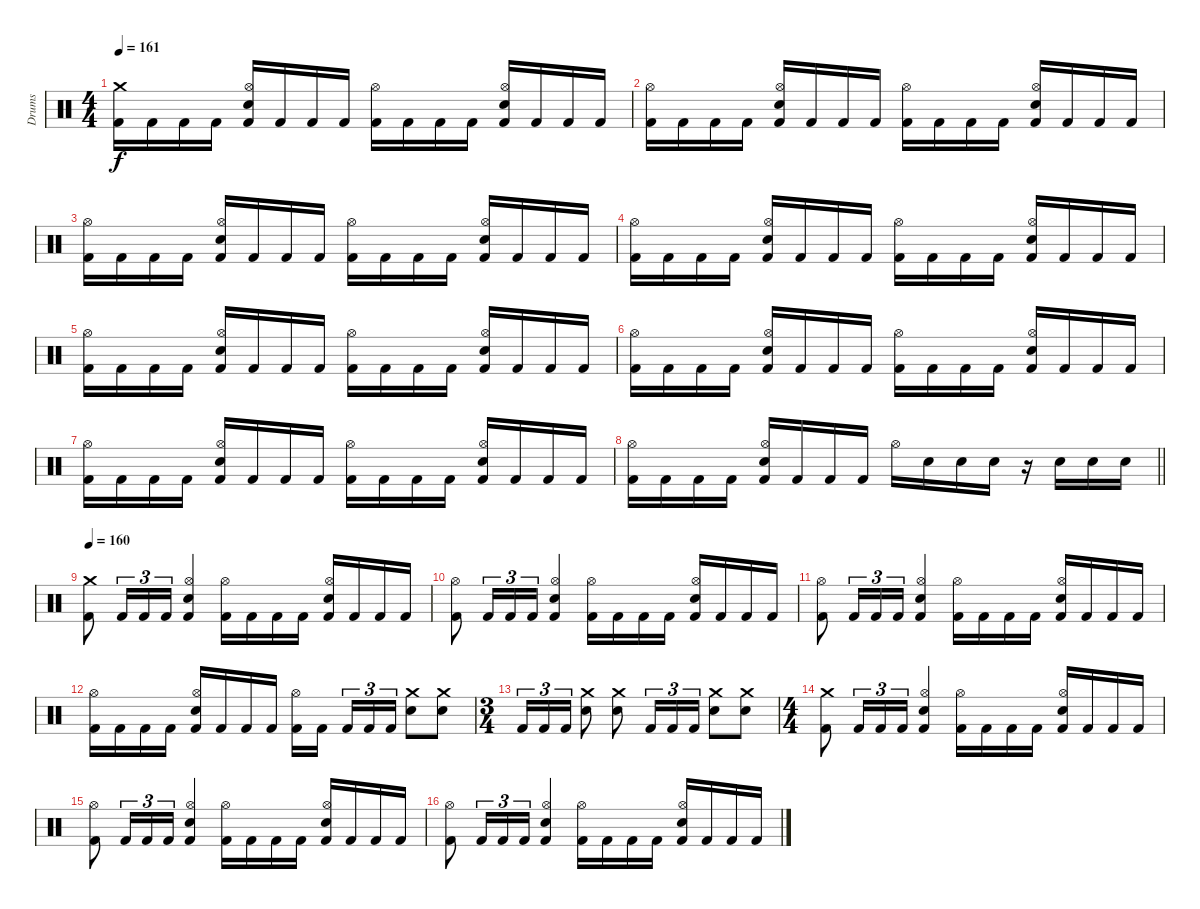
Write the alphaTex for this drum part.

\track ("Drums" "Drums") {instrument percussion}
\staff {score}
\articulation defaults
\ts (4 4)
\section ("" "")
\tempo 161
\clef neutral
\ks c
("Crash medium (hit)" "Kick (hit) 2").16{dy f} "Kick (hit) 2".16 "Kick (hit) 2".16 "Kick (hit) 2".16 ("Hi-Hat (open)" "Electric Snare (hit)" "Kick (hit) 2").16 "Kick (hit) 2".16 "Kick (hit) 2".16 "Kick (hit) 2".16 ("Hi-Hat (open)" "Kick (hit) 2").16 "Kick (hit) 2".16 "Kick (hit) 2".16 "Kick (hit) 2".16 ("Hi-Hat (open)" "Electric Snare (hit)" "Kick (hit) 2").16 "Kick (hit) 2".16 "Kick (hit) 2".16 "Kick (hit) 2".16 |
("Hi-Hat (open)" "Kick (hit) 2").16 "Kick (hit) 2".16 "Kick (hit) 2".16 "Kick (hit) 2".16 ("Hi-Hat (open)" "Electric Snare (hit)" "Kick (hit) 2").16 "Kick (hit) 2".16 "Kick (hit) 2".16 "Kick (hit) 2".16 ("Hi-Hat (open)" "Kick (hit) 2").16 "Kick (hit) 2".16 "Kick (hit) 2".16 "Kick (hit) 2".16 ("Hi-Hat (open)" "Electric Snare (hit)" "Kick (hit) 2").16 "Kick (hit) 2".16 "Kick (hit) 2".16 "Kick (hit) 2".16 |
("Hi-Hat (open)" "Kick (hit) 2").16 "Kick (hit) 2".16 "Kick (hit) 2".16 "Kick (hit) 2".16 ("Hi-Hat (open)" "Electric Snare (hit)" "Kick (hit) 2").16 "Kick (hit) 2".16 "Kick (hit) 2".16 "Kick (hit) 2".16 ("Hi-Hat (open)" "Kick (hit) 2").16 "Kick (hit) 2".16 "Kick (hit) 2".16 "Kick (hit) 2".16 ("Hi-Hat (open)" "Electric Snare (hit)" "Kick (hit) 2").16 "Kick (hit) 2".16 "Kick (hit) 2".16 "Kick (hit) 2".16 |
("Hi-Hat (open)" "Kick (hit) 2").16 "Kick (hit) 2".16 "Kick (hit) 2".16 "Kick (hit) 2".16 ("Hi-Hat (open)" "Electric Snare (hit)" "Kick (hit) 2").16 "Kick (hit) 2".16 "Kick (hit) 2".16 "Kick (hit) 2".16 ("Hi-Hat (open)" "Kick (hit) 2").16 "Kick (hit) 2".16 "Kick (hit) 2".16 "Kick (hit) 2".16 ("Hi-Hat (open)" "Electric Snare (hit)" "Kick (hit) 2").16 "Kick (hit) 2".16 "Kick (hit) 2".16 "Kick (hit) 2".16 |
("Hi-Hat (open)" "Kick (hit) 2").16 "Kick (hit) 2".16 "Kick (hit) 2".16 "Kick (hit) 2".16 ("Hi-Hat (open)" "Electric Snare (hit)" "Kick (hit) 2").16 "Kick (hit) 2".16 "Kick (hit) 2".16 "Kick (hit) 2".16 ("Hi-Hat (open)" "Kick (hit) 2").16 "Kick (hit) 2".16 "Kick (hit) 2".16 "Kick (hit) 2".16 ("Hi-Hat (open)" "Electric Snare (hit)" "Kick (hit) 2").16 "Kick (hit) 2".16 "Kick (hit) 2".16 "Kick (hit) 2".16 |
("Hi-Hat (open)" "Kick (hit) 2").16 "Kick (hit) 2".16 "Kick (hit) 2".16 "Kick (hit) 2".16 ("Hi-Hat (open)" "Electric Snare (hit)" "Kick (hit) 2").16 "Kick (hit) 2".16 "Kick (hit) 2".16 "Kick (hit) 2".16 ("Hi-Hat (open)" "Kick (hit) 2").16 "Kick (hit) 2".16 "Kick (hit) 2".16 "Kick (hit) 2".16 ("Hi-Hat (open)" "Electric Snare (hit)" "Kick (hit) 2").16 "Kick (hit) 2".16 "Kick (hit) 2".16 "Kick (hit) 2".16 |
("Hi-Hat (open)" "Kick (hit) 2").16 "Kick (hit) 2".16 "Kick (hit) 2".16 "Kick (hit) 2".16 ("Hi-Hat (open)" "Electric Snare (hit)" "Kick (hit) 2").16 "Kick (hit) 2".16 "Kick (hit) 2".16 "Kick (hit) 2".16 ("Hi-Hat (open)" "Kick (hit) 2").16 "Kick (hit) 2".16 "Kick (hit) 2".16 "Kick (hit) 2".16 ("Hi-Hat (open)" "Electric Snare (hit)" "Kick (hit) 2").16 "Kick (hit) 2".16 "Kick (hit) 2".16 "Kick (hit) 2".16 |
\barLineRight lightlight
("Hi-Hat (open)" "Kick (hit) 2").16 "Kick (hit) 2".16 "Kick (hit) 2".16 "Kick (hit) 2".16 ("Hi-Hat (open)" "Electric Snare (hit)" "Kick (hit) 2").16 "Kick (hit) 2".16 "Kick (hit) 2".16 "Kick (hit) 2".16 "Hi-Hat (open)".16 "Electric Snare (hit)".16 "Electric Snare (hit)".16 "Electric Snare (hit)".16 r.16 "Electric Snare (hit)".16 "Electric Snare (hit)".16 "Electric Snare (hit)".16 |
\section ("" "")
\tempo 160
("Crash medium (hit)" "Kick (hit) 2").8 "Kick (hit) 2".16{tu (3 2)} "Kick (hit) 2".16{tu (3 2)} "Kick (hit) 2".16{tu (3 2)} ("Hi-Hat (open)" "Electric Snare (hit)" "Kick (hit) 2").4 ("Hi-Hat (open)" "Kick (hit) 2").16 "Kick (hit) 2".16 "Kick (hit) 2".16 "Kick (hit) 2".16 ("Hi-Hat (open)" "Electric Snare (hit)" "Kick (hit) 2").16 "Kick (hit) 2".16 "Kick (hit) 2".16 "Kick (hit) 2".16 |
("Hi-Hat (open)" "Kick (hit) 2").8 "Kick (hit) 2".16{tu (3 2)} "Kick (hit) 2".16{tu (3 2)} "Kick (hit) 2".16{tu (3 2)} ("Hi-Hat (open)" "Electric Snare (hit)" "Kick (hit) 2").4 ("Hi-Hat (open)" "Kick (hit) 2").16 "Kick (hit) 2".16 "Kick (hit) 2".16 "Kick (hit) 2".16 ("Hi-Hat (open)" "Electric Snare (hit)" "Kick (hit) 2").16 "Kick (hit) 2".16 "Kick (hit) 2".16 "Kick (hit) 2".16 |
("Hi-Hat (open)" "Kick (hit) 2").8 "Kick (hit) 2".16{tu (3 2)} "Kick (hit) 2".16{tu (3 2)} "Kick (hit) 2".16{tu (3 2)} ("Hi-Hat (open)" "Electric Snare (hit)" "Kick (hit) 2").4 ("Hi-Hat (open)" "Kick (hit) 2").16 "Kick (hit) 2".16 "Kick (hit) 2".16 "Kick (hit) 2".16 ("Hi-Hat (open)" "Electric Snare (hit)" "Kick (hit) 2").16 "Kick (hit) 2".16 "Kick (hit) 2".16 "Kick (hit) 2".16 |
("Hi-Hat (open)" "Kick (hit) 2").16 "Kick (hit) 2".16 "Kick (hit) 2".16 "Kick (hit) 2".16 ("Hi-Hat (open)" "Electric Snare (hit)" "Kick (hit) 2").16 "Kick (hit) 2".16 "Kick (hit) 2".16 "Kick (hit) 2".16 ("Hi-Hat (open)" "Kick (hit) 2").16 "Kick (hit) 2".16{beam splitsecondary} "Kick (hit) 2".16{tu (3 2)} "Kick (hit) 2".16{tu (3 2)} "Kick (hit) 2".16{tu (3 2)} ("Crash medium (hit)" "Electric Snare (hit)").8 ("Crash medium (hit)" "Electric Snare (hit)").8 |
\ts (3 4)
"Kick (hit) 2".16{tu (3 2)} "Kick (hit) 2".16{tu (3 2)} "Kick (hit) 2".16{tu (3 2)} ("Crash medium (hit)" "Electric Snare (hit)").8 ("Crash medium (hit)" "Electric Snare (hit)").8 "Kick (hit) 2".16{tu (3 2)} "Kick (hit) 2".16{tu (3 2)} "Kick (hit) 2".16{tu (3 2)} ("Crash medium (hit)" "Electric Snare (hit)").8 ("Crash medium (hit)" "Electric Snare (hit)").8 |
\ts (4 4)
("Crash medium (hit)" "Kick (hit) 2").8 "Kick (hit) 2".16{tu (3 2)} "Kick (hit) 2".16{tu (3 2)} "Kick (hit) 2".16{tu (3 2)} ("Hi-Hat (open)" "Electric Snare (hit)" "Kick (hit) 2").4 ("Hi-Hat (open)" "Kick (hit) 2").16 "Kick (hit) 2".16 "Kick (hit) 2".16 "Kick (hit) 2".16 ("Hi-Hat (open)" "Electric Snare (hit)" "Kick (hit) 2").16 "Kick (hit) 2".16 "Kick (hit) 2".16 "Kick (hit) 2".16 |
("Hi-Hat (open)" "Kick (hit) 2").8 "Kick (hit) 2".16{tu (3 2)} "Kick (hit) 2".16{tu (3 2)} "Kick (hit) 2".16{tu (3 2)} ("Hi-Hat (open)" "Electric Snare (hit)" "Kick (hit) 2").4 ("Hi-Hat (open)" "Kick (hit) 2").16 "Kick (hit) 2".16 "Kick (hit) 2".16 "Kick (hit) 2".16 ("Hi-Hat (open)" "Electric Snare (hit)" "Kick (hit) 2").16 "Kick (hit) 2".16 "Kick (hit) 2".16 "Kick (hit) 2".16 |
("Hi-Hat (open)" "Kick (hit) 2").8 "Kick (hit) 2".16{tu (3 2)} "Kick (hit) 2".16{tu (3 2)} "Kick (hit) 2".16{tu (3 2)} ("Hi-Hat (open)" "Electric Snare (hit)" "Kick (hit) 2").4 ("Hi-Hat (open)" "Kick (hit) 2").16 "Kick (hit) 2".16 "Kick (hit) 2".16 "Kick (hit) 2".16 ("Hi-Hat (open)" "Electric Snare (hit)" "Kick (hit) 2").16 "Kick (hit) 2".16 "Kick (hit) 2".16 "Kick (hit) 2".16
